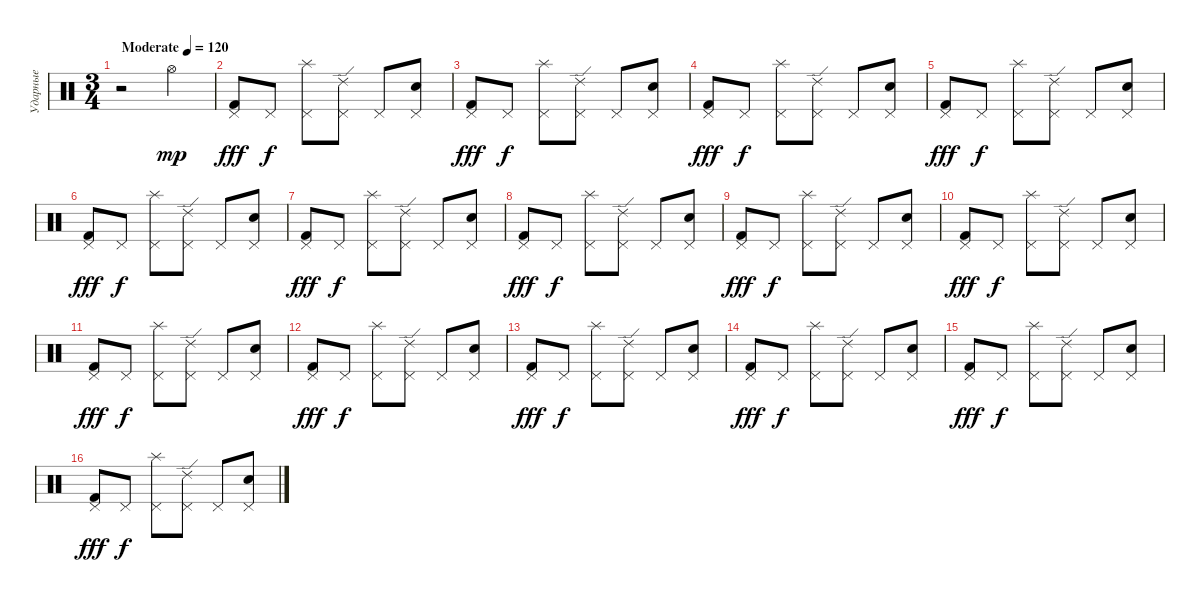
\track ("Ударные" "Ударные") {instrument percussion}
\staff {score}
\articulation defaults
\ts (3 4)
\tempo (120 "Moderate")
\clef neutral
\ks c
r.2{dy mp} "Hi-Hat (open)".4 |
("Pedal Hi-Hat (hit)" "Kick (hit) 2").8{dy fff} "Pedal Hi-Hat (hit)".8{dy f} ("Pedal Hi-Hat (hit)" "Splash (hit)").8 ("Pedal Hi-Hat (hit)" "Ride (edge) 2").8 "Pedal Hi-Hat (hit)".8 ("Pedal Hi-Hat (hit)" "Snare (hit) 2").8 |
("Pedal Hi-Hat (hit)" "Kick (hit) 2").8{dy fff} "Pedal Hi-Hat (hit)".8{dy f} ("Pedal Hi-Hat (hit)" "Splash (hit)").8 ("Pedal Hi-Hat (hit)" "Ride (edge) 2").8 "Pedal Hi-Hat (hit)".8 ("Pedal Hi-Hat (hit)" "Snare (hit) 2").8 |
("Pedal Hi-Hat (hit)" "Kick (hit) 2").8{dy fff} "Pedal Hi-Hat (hit)".8{dy f} ("Pedal Hi-Hat (hit)" "Splash (hit)").8 ("Pedal Hi-Hat (hit)" "Ride (edge) 2").8 "Pedal Hi-Hat (hit)".8 ("Pedal Hi-Hat (hit)" "Snare (hit) 2").8 |
("Pedal Hi-Hat (hit)" "Kick (hit) 2").8{dy fff} "Pedal Hi-Hat (hit)".8{dy f} ("Pedal Hi-Hat (hit)" "Splash (hit)").8 ("Pedal Hi-Hat (hit)" "Ride (edge) 2").8 "Pedal Hi-Hat (hit)".8 ("Pedal Hi-Hat (hit)" "Snare (hit) 2").8 |
("Pedal Hi-Hat (hit)" "Kick (hit) 2").8{dy fff} "Pedal Hi-Hat (hit)".8{dy f} ("Pedal Hi-Hat (hit)" "Splash (hit)").8 ("Pedal Hi-Hat (hit)" "Ride (edge) 2").8 "Pedal Hi-Hat (hit)".8 ("Pedal Hi-Hat (hit)" "Snare (hit) 2").8 |
("Pedal Hi-Hat (hit)" "Kick (hit) 2").8{dy fff} "Pedal Hi-Hat (hit)".8{dy f} ("Pedal Hi-Hat (hit)" "Splash (hit)").8 ("Pedal Hi-Hat (hit)" "Ride (edge) 2").8 "Pedal Hi-Hat (hit)".8 ("Pedal Hi-Hat (hit)" "Snare (hit) 2").8 |
("Pedal Hi-Hat (hit)" "Kick (hit) 2").8{dy fff} "Pedal Hi-Hat (hit)".8{dy f} ("Pedal Hi-Hat (hit)" "Splash (hit)").8 ("Pedal Hi-Hat (hit)" "Ride (edge) 2").8 "Pedal Hi-Hat (hit)".8 ("Pedal Hi-Hat (hit)" "Snare (hit) 2").8 |
("Pedal Hi-Hat (hit)" "Kick (hit) 2").8{dy fff} "Pedal Hi-Hat (hit)".8{dy f} ("Pedal Hi-Hat (hit)" "Splash (hit)").8 ("Pedal Hi-Hat (hit)" "Ride (edge) 2").8 "Pedal Hi-Hat (hit)".8 ("Pedal Hi-Hat (hit)" "Snare (hit) 2").8 |
("Pedal Hi-Hat (hit)" "Kick (hit) 2").8{dy fff} "Pedal Hi-Hat (hit)".8{dy f} ("Pedal Hi-Hat (hit)" "Splash (hit)").8 ("Pedal Hi-Hat (hit)" "Ride (edge) 2").8 "Pedal Hi-Hat (hit)".8 ("Pedal Hi-Hat (hit)" "Snare (hit) 2").8 |
("Pedal Hi-Hat (hit)" "Kick (hit) 2").8{dy fff} "Pedal Hi-Hat (hit)".8{dy f} ("Pedal Hi-Hat (hit)" "Splash (hit)").8 ("Pedal Hi-Hat (hit)" "Ride (edge) 2").8 "Pedal Hi-Hat (hit)".8 ("Pedal Hi-Hat (hit)" "Snare (hit) 2").8 |
("Pedal Hi-Hat (hit)" "Kick (hit) 2").8{dy fff} "Pedal Hi-Hat (hit)".8{dy f} ("Pedal Hi-Hat (hit)" "Splash (hit)").8 ("Pedal Hi-Hat (hit)" "Ride (edge) 2").8 "Pedal Hi-Hat (hit)".8 ("Pedal Hi-Hat (hit)" "Snare (hit) 2").8 |
("Pedal Hi-Hat (hit)" "Kick (hit) 2").8{dy fff} "Pedal Hi-Hat (hit)".8{dy f} ("Pedal Hi-Hat (hit)" "Splash (hit)").8 ("Pedal Hi-Hat (hit)" "Ride (edge) 2").8 "Pedal Hi-Hat (hit)".8 ("Pedal Hi-Hat (hit)" "Snare (hit) 2").8 |
("Pedal Hi-Hat (hit)" "Kick (hit) 2").8{dy fff} "Pedal Hi-Hat (hit)".8{dy f} ("Pedal Hi-Hat (hit)" "Splash (hit)").8 ("Pedal Hi-Hat (hit)" "Ride (edge) 2").8 "Pedal Hi-Hat (hit)".8 ("Pedal Hi-Hat (hit)" "Snare (hit) 2").8 |
("Pedal Hi-Hat (hit)" "Kick (hit) 2").8{dy fff} "Pedal Hi-Hat (hit)".8{dy f} ("Pedal Hi-Hat (hit)" "Splash (hit)").8 ("Pedal Hi-Hat (hit)" "Ride (edge) 2").8 "Pedal Hi-Hat (hit)".8 ("Pedal Hi-Hat (hit)" "Snare (hit) 2").8 |
("Pedal Hi-Hat (hit)" "Kick (hit) 2").8{dy fff} "Pedal Hi-Hat (hit)".8{dy f} ("Pedal Hi-Hat (hit)" "Splash (hit)").8 ("Pedal Hi-Hat (hit)" "Ride (edge) 2").8 "Pedal Hi-Hat (hit)".8 ("Pedal Hi-Hat (hit)" "Snare (hit) 2").8
